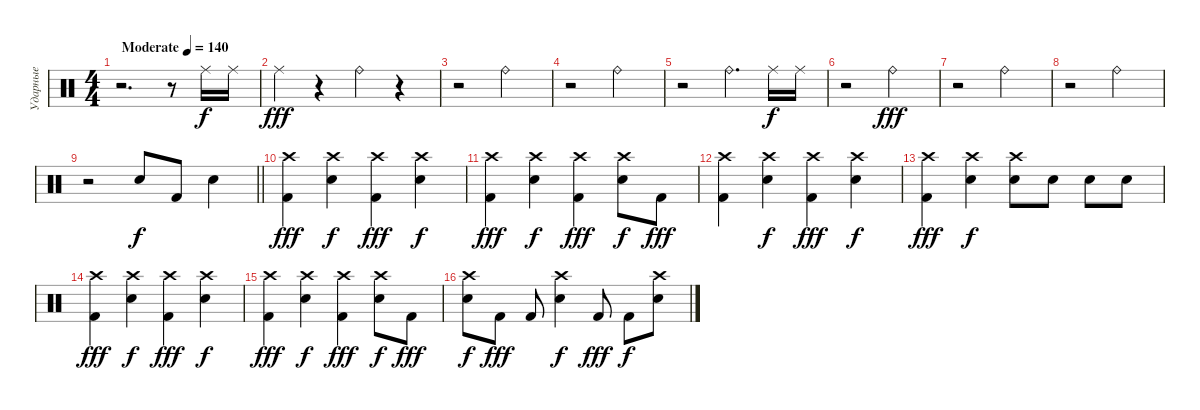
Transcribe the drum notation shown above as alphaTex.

\track ("Ударные" "Ударные") {instrument percussion}
\staff {score}
\articulation defaults
\ts (4 4)
\tempo (140 "Moderate")
\clef neutral
\ks c
r.2{d dy f} r.8 "Ride (middle)".16 "Ride (middle)".16 |
"Ride (middle)".4{dy fff} r.4 "Ride (bell)".4 r.4 |
r.2 "Ride (bell)".2 |
r.2 "Ride (bell)".2 |
r.2 "Ride (bell)".4{d} "Ride (middle)".16{dy f} "Ride (middle)".16 |
r.2 "Ride (bell)".2{dy fff} |
r.2 "Ride (bell)".2 |
r.2 "Ride (bell)".2 |
\barLineRight lightlight
r.2 "Snare (hit) 2".8{dy f} "Kick (hit) 2".8 "Snare (hit) 2".4 |
("Kick (hit) 2" "Crash high (hit)").4{dy fff} ("Snare (hit) 2" "Crash high (hit)").4{dy f} ("Kick (hit) 2" "Crash high (hit)").4{dy fff} ("Snare (hit) 2" "Crash high (hit)").4{dy f} |
("Kick (hit) 2" "Crash high (hit)").4{dy fff} ("Snare (hit) 2" "Crash high (hit)").4{dy f} ("Kick (hit) 2" "Crash high (hit)").4{dy fff} ("Snare (hit) 2" "Crash high (hit)").8{dy f} "Kick (hit) 2".8{dy fff} |
("Kick (hit) 2" "Crash high (hit)").4 ("Snare (hit) 2" "Crash high (hit)").4{dy f} ("Kick (hit) 2" "Crash high (hit)").4{dy fff} ("Snare (hit) 2" "Crash high (hit)").4{dy f} |
("Kick (hit) 2" "Crash high (hit)").4{dy fff} ("Snare (hit) 2" "Crash high (hit)").4{dy f} ("Snare (hit) 2" "Crash high (hit)").8 "Snare (hit) 2".8 "Snare (hit) 2".8 "Snare (hit) 2".8 |
("Kick (hit) 2" "Crash high (hit)").4{dy fff} ("Snare (hit) 2" "Crash high (hit)").4{dy f} ("Kick (hit) 2" "Crash high (hit)").4{dy fff} ("Snare (hit) 2" "Crash high (hit)").4{dy f} |
("Kick (hit) 2" "Crash high (hit)").4{dy fff} ("Snare (hit) 2" "Crash high (hit)").4{dy f} ("Kick (hit) 2" "Crash high (hit)").4{dy fff} ("Snare (hit) 2" "Crash high (hit)").8{dy f} "Kick (hit) 2".8{dy fff} |
("Snare (hit) 2" "Crash high (hit)").8{dy f} "Kick (hit) 2".8{dy fff} "Kick (hit) 2".8 ("Snare (hit) 2" "Crash high (hit)").4{dy f} "Kick (hit) 2".8{dy fff} "Kick (hit) 2".8{dy f} ("Snare (hit) 2" "Crash high (hit)").8
